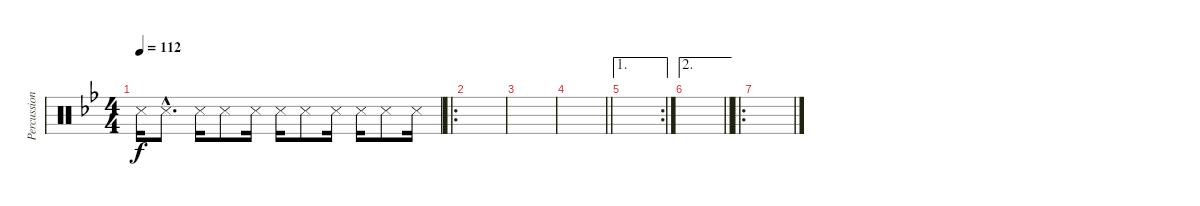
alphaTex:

\track ("Percussions" "Percussion") {instrument percussion}
\staff {score}
\articulation defaults
\ts (4 4)
\tempo 112
\clef neutral
\ks bb "Snare (side stick) 3".16{dy f} "Snare (side stick) 3"{hac}.8{d} "Snare (side stick) 3".16 "Snare (side stick) 3".8 "Snare (side stick) 3".16 "Snare (side stick) 3".16 "Snare (side stick) 3".8 "Snare (side stick) 3".16 "Snare (side stick) 3".16 "Snare (side stick) 3".8 "Snare (side stick) 3".16
|
\ro
|
|
\barLineRight lightlight
|
\ae 1
\rc 2
|
\ae 2
\barLineRight lightlight
|
\ro
